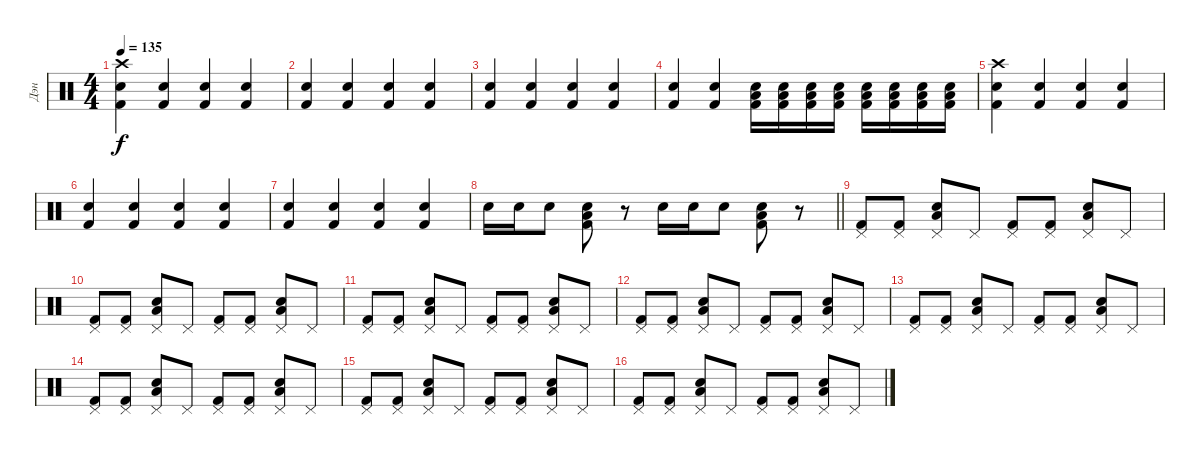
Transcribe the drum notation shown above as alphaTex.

\track ("Дэн" "Дэн") {instrument percussion}
\staff {score}
\articulation defaults
\ts (4 4)
\tempo 135
\clef neutral
\ks c
("Snare (hit) 2" "Kick (hit) 2" "Crash high (hit)").4{dy f} ("Snare (hit) 2" "Kick (hit) 2").4 ("Snare (hit) 2" "Kick (hit) 2").4 ("Snare (hit) 2" "Kick (hit) 2").4 |
("Snare (hit) 2" "Kick (hit) 2").4 ("Snare (hit) 2" "Kick (hit) 2").4 ("Snare (hit) 2" "Kick (hit) 2").4 ("Snare (hit) 2" "Kick (hit) 2").4 |
("Snare (hit) 2" "Kick (hit) 2").4 ("Snare (hit) 2" "Kick (hit) 2").4 ("Snare (hit) 2" "Kick (hit) 2").4 ("Snare (hit) 2" "Kick (hit) 2").4 |
("Snare (hit) 2" "Kick (hit) 2").4 ("Snare (hit) 2" "Kick (hit) 2").4 ("Snare (hit) 2" "Low Tom (hit)" "Kick (hit) 2").16 ("Snare (hit) 2" "Low Tom (hit)" "Kick (hit) 2").16 ("Snare (hit) 2" "Low Tom (hit)" "Kick (hit) 2").16 ("Snare (hit) 2" "Low Tom (hit)" "Kick (hit) 2").16 ("Snare (hit) 2" "Low Tom (hit)" "Kick (hit) 2").16 ("Snare (hit) 2" "Low Tom (hit)" "Kick (hit) 2").16 ("Snare (hit) 2" "Low Tom (hit)" "Kick (hit) 2").16 ("Snare (hit) 2" "Low Tom (hit)" "Kick (hit) 2").16 |
("Snare (hit) 2" "Kick (hit) 2" "Crash high (hit)").4 ("Snare (hit) 2" "Kick (hit) 2").4 ("Snare (hit) 2" "Kick (hit) 2").4 ("Snare (hit) 2" "Kick (hit) 2").4 |
("Snare (hit) 2" "Kick (hit) 2").4 ("Snare (hit) 2" "Kick (hit) 2").4 ("Snare (hit) 2" "Kick (hit) 2").4 ("Snare (hit) 2" "Kick (hit) 2").4 |
("Snare (hit) 2" "Kick (hit) 2").4 ("Snare (hit) 2" "Kick (hit) 2").4 ("Snare (hit) 2" "Kick (hit) 2").4 ("Snare (hit) 2" "Kick (hit) 2").4 |
\barLineRight lightlight "Snare (hit) 2".16 "Snare (hit) 2".16 "Snare (hit) 2".8
("Snare (hit) 2" "Low Tom (hit)" "Kick (hit) 2").8 r.8 "Snare (hit) 2".16 "Snare (hit) 2".16 "Snare (hit) 2".8 ("Snare (hit) 2" "Low Tom (hit)" "Kick (hit) 2").8 r.8 |
("Pedal Hi-Hat (hit)" "Kick (hit) 2").8 ("Pedal Hi-Hat (hit)" "Kick (hit) 2").8 ("Snare (hit) 2" "Low Tom (hit)" "Pedal Hi-Hat (hit)").8 "Pedal Hi-Hat (hit)".8 ("Pedal Hi-Hat (hit)" "Kick (hit) 2").8 ("Pedal Hi-Hat (hit)" "Kick (hit) 2").8 ("Snare (hit) 2" "Low Tom (hit)" "Pedal Hi-Hat (hit)").8 "Pedal Hi-Hat (hit)".8 |
("Pedal Hi-Hat (hit)" "Kick (hit) 2").8 ("Pedal Hi-Hat (hit)" "Kick (hit) 2").8 ("Snare (hit) 2" "Low Tom (hit)" "Pedal Hi-Hat (hit)").8 "Pedal Hi-Hat (hit)".8 ("Pedal Hi-Hat (hit)" "Kick (hit) 2").8 ("Pedal Hi-Hat (hit)" "Kick (hit) 2").8 ("Snare (hit) 2" "Low Tom (hit)" "Pedal Hi-Hat (hit)").8 "Pedal Hi-Hat (hit)".8 |
("Pedal Hi-Hat (hit)" "Kick (hit) 2").8 ("Pedal Hi-Hat (hit)" "Kick (hit) 2").8 ("Snare (hit) 2" "Low Tom (hit)" "Pedal Hi-Hat (hit)").8 "Pedal Hi-Hat (hit)".8 ("Pedal Hi-Hat (hit)" "Kick (hit) 2").8 ("Pedal Hi-Hat (hit)" "Kick (hit) 2").8 ("Snare (hit) 2" "Low Tom (hit)" "Pedal Hi-Hat (hit)").8 "Pedal Hi-Hat (hit)".8 |
("Pedal Hi-Hat (hit)" "Kick (hit) 2").8 ("Pedal Hi-Hat (hit)" "Kick (hit) 2").8 ("Snare (hit) 2" "Low Tom (hit)" "Pedal Hi-Hat (hit)").8 "Pedal Hi-Hat (hit)".8 ("Pedal Hi-Hat (hit)" "Kick (hit) 2").8 ("Pedal Hi-Hat (hit)" "Kick (hit) 2").8 ("Snare (hit) 2" "Low Tom (hit)" "Pedal Hi-Hat (hit)").8 "Pedal Hi-Hat (hit)".8 |
("Pedal Hi-Hat (hit)" "Kick (hit) 2").8 ("Pedal Hi-Hat (hit)" "Kick (hit) 2").8 ("Snare (hit) 2" "Low Tom (hit)" "Pedal Hi-Hat (hit)").8 "Pedal Hi-Hat (hit)".8 ("Pedal Hi-Hat (hit)" "Kick (hit) 2").8 ("Pedal Hi-Hat (hit)" "Kick (hit) 2").8 ("Snare (hit) 2" "Low Tom (hit)" "Pedal Hi-Hat (hit)").8 "Pedal Hi-Hat (hit)".8 |
("Pedal Hi-Hat (hit)" "Kick (hit) 2").8 ("Pedal Hi-Hat (hit)" "Kick (hit) 2").8 ("Snare (hit) 2" "Low Tom (hit)" "Pedal Hi-Hat (hit)").8 "Pedal Hi-Hat (hit)".8 ("Pedal Hi-Hat (hit)" "Kick (hit) 2").8 ("Pedal Hi-Hat (hit)" "Kick (hit) 2").8 ("Snare (hit) 2" "Low Tom (hit)" "Pedal Hi-Hat (hit)").8 "Pedal Hi-Hat (hit)".8 |
("Pedal Hi-Hat (hit)" "Kick (hit) 2").8 ("Pedal Hi-Hat (hit)" "Kick (hit) 2").8 ("Snare (hit) 2" "Low Tom (hit)" "Pedal Hi-Hat (hit)").8 "Pedal Hi-Hat (hit)".8 ("Pedal Hi-Hat (hit)" "Kick (hit) 2").8 ("Pedal Hi-Hat (hit)" "Kick (hit) 2").8 ("Snare (hit) 2" "Low Tom (hit)" "Pedal Hi-Hat (hit)").8 "Pedal Hi-Hat (hit)".8 |
("Pedal Hi-Hat (hit)" "Kick (hit) 2").8 ("Pedal Hi-Hat (hit)" "Kick (hit) 2").8 ("Snare (hit) 2" "Low Tom (hit)" "Pedal Hi-Hat (hit)").8 "Pedal Hi-Hat (hit)".8 ("Pedal Hi-Hat (hit)" "Kick (hit) 2").8 ("Pedal Hi-Hat (hit)" "Kick (hit) 2").8 ("Snare (hit) 2" "Low Tom (hit)" "Pedal Hi-Hat (hit)").8 "Pedal Hi-Hat (hit)".8
